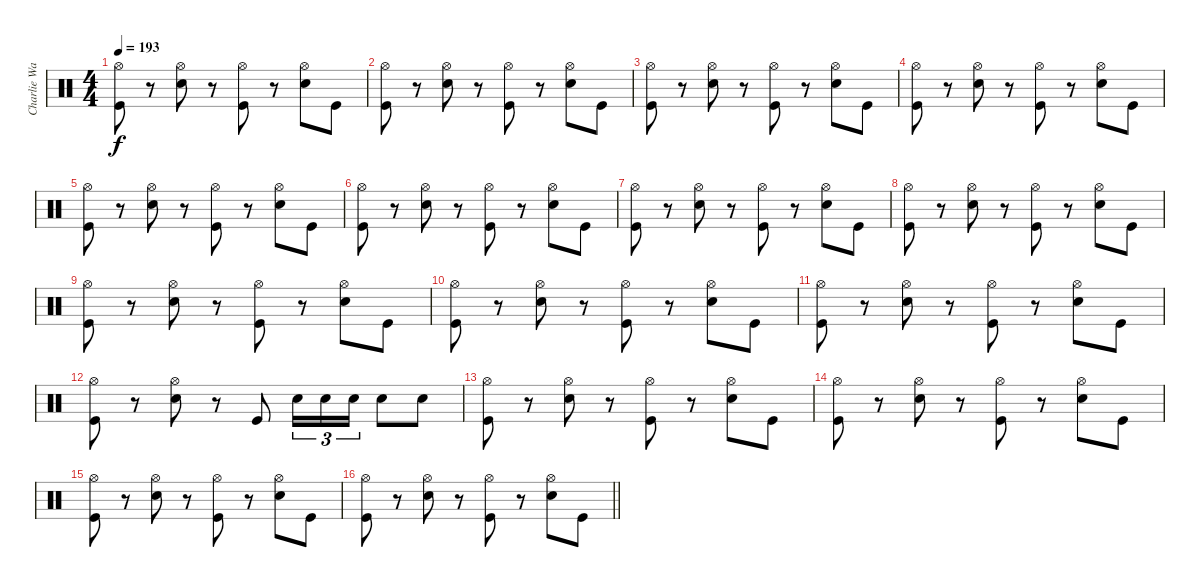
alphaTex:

\track ("Charlie Watts" "Charlie Wa") {instrument percussion}
\staff {score}
\articulation defaults
\ts (4 4)
\tempo 193
\clef neutral
\ks c
("Hi-Hat (open)" "Kick (hit)").8{dy f} r.8 ("Hi-Hat (open)" "Snare (hit) 2").8 r.8 ("Hi-Hat (open)" "Kick (hit)").8 r.8 ("Hi-Hat (open)" "Snare (hit) 2").8 "Kick (hit)".8 |
("Hi-Hat (open)" "Kick (hit)").8 r.8 ("Hi-Hat (open)" "Snare (hit) 2").8 r.8 ("Hi-Hat (open)" "Kick (hit)").8 r.8 ("Hi-Hat (open)" "Snare (hit) 2").8 "Kick (hit)".8 |
("Hi-Hat (open)" "Kick (hit)").8 r.8 ("Hi-Hat (open)" "Snare (hit) 2").8 r.8 ("Hi-Hat (open)" "Kick (hit)").8 r.8 ("Hi-Hat (open)" "Snare (hit) 2").8 "Kick (hit)".8 |
("Hi-Hat (open)" "Kick (hit)").8 r.8 ("Hi-Hat (open)" "Snare (hit) 2").8 r.8 ("Hi-Hat (open)" "Kick (hit)").8 r.8 ("Hi-Hat (open)" "Snare (hit) 2").8 "Kick (hit)".8 |
("Hi-Hat (open)" "Kick (hit)").8 r.8 ("Hi-Hat (open)" "Snare (hit) 2").8 r.8 ("Hi-Hat (open)" "Kick (hit)").8 r.8 ("Hi-Hat (open)" "Snare (hit) 2").8 "Kick (hit)".8 |
("Hi-Hat (open)" "Kick (hit)").8 r.8 ("Hi-Hat (open)" "Snare (hit) 2").8 r.8 ("Hi-Hat (open)" "Kick (hit)").8 r.8 ("Hi-Hat (open)" "Snare (hit) 2").8 "Kick (hit)".8 |
("Hi-Hat (open)" "Kick (hit)").8 r.8 ("Hi-Hat (open)" "Snare (hit) 2").8 r.8 ("Hi-Hat (open)" "Kick (hit)").8 r.8 ("Hi-Hat (open)" "Snare (hit) 2").8 "Kick (hit)".8 |
("Hi-Hat (open)" "Kick (hit)").8 r.8 ("Hi-Hat (open)" "Snare (hit) 2").8 r.8 ("Hi-Hat (open)" "Kick (hit)").8 r.8 ("Hi-Hat (open)" "Snare (hit) 2").8 "Kick (hit)".8 |
("Hi-Hat (open)" "Kick (hit)").8 r.8 ("Hi-Hat (open)" "Snare (hit) 2").8 r.8 ("Hi-Hat (open)" "Kick (hit)").8 r.8 ("Hi-Hat (open)" "Snare (hit) 2").8 "Kick (hit)".8 |
("Hi-Hat (open)" "Kick (hit)").8 r.8 ("Hi-Hat (open)" "Snare (hit) 2").8 r.8 ("Hi-Hat (open)" "Kick (hit)").8 r.8 ("Hi-Hat (open)" "Snare (hit) 2").8 "Kick (hit)".8 |
("Hi-Hat (open)" "Kick (hit)").8 r.8 ("Hi-Hat (open)" "Snare (hit) 2").8 r.8 ("Hi-Hat (open)" "Kick (hit)").8 r.8 ("Hi-Hat (open)" "Snare (hit) 2").8 "Kick (hit)".8 |
("Hi-Hat (open)" "Kick (hit)").8 r.8 ("Hi-Hat (open)" "Snare (hit) 2").8 r.8 "Kick (hit)".8 "Snare (hit) 2".16{tu (3 2)} "Snare (hit) 2".16{tu (3 2)} "Snare (hit) 2".16{tu (3 2)} "Snare (hit) 2".8 "Snare (hit) 2".8 |
("Hi-Hat (open)" "Kick (hit)").8 r.8 ("Hi-Hat (open)" "Snare (hit) 2").8 r.8 ("Hi-Hat (open)" "Kick (hit)").8 r.8 ("Hi-Hat (open)" "Snare (hit) 2").8 "Kick (hit)".8 |
("Hi-Hat (open)" "Kick (hit)").8 r.8 ("Hi-Hat (open)" "Snare (hit) 2").8 r.8 ("Hi-Hat (open)" "Kick (hit)").8 r.8 ("Hi-Hat (open)" "Snare (hit) 2").8 "Kick (hit)".8 |
("Hi-Hat (open)" "Kick (hit)").8 r.8 ("Hi-Hat (open)" "Snare (hit) 2").8 r.8 ("Hi-Hat (open)" "Kick (hit)").8 r.8 ("Hi-Hat (open)" "Snare (hit) 2").8 "Kick (hit)".8 |
\barLineRight lightlight
("Hi-Hat (open)" "Kick (hit)").8 r.8 ("Hi-Hat (open)" "Snare (hit) 2").8 r.8 ("Hi-Hat (open)" "Kick (hit)").8 r.8 ("Hi-Hat (open)" "Snare (hit) 2").8 "Kick (hit)".8
